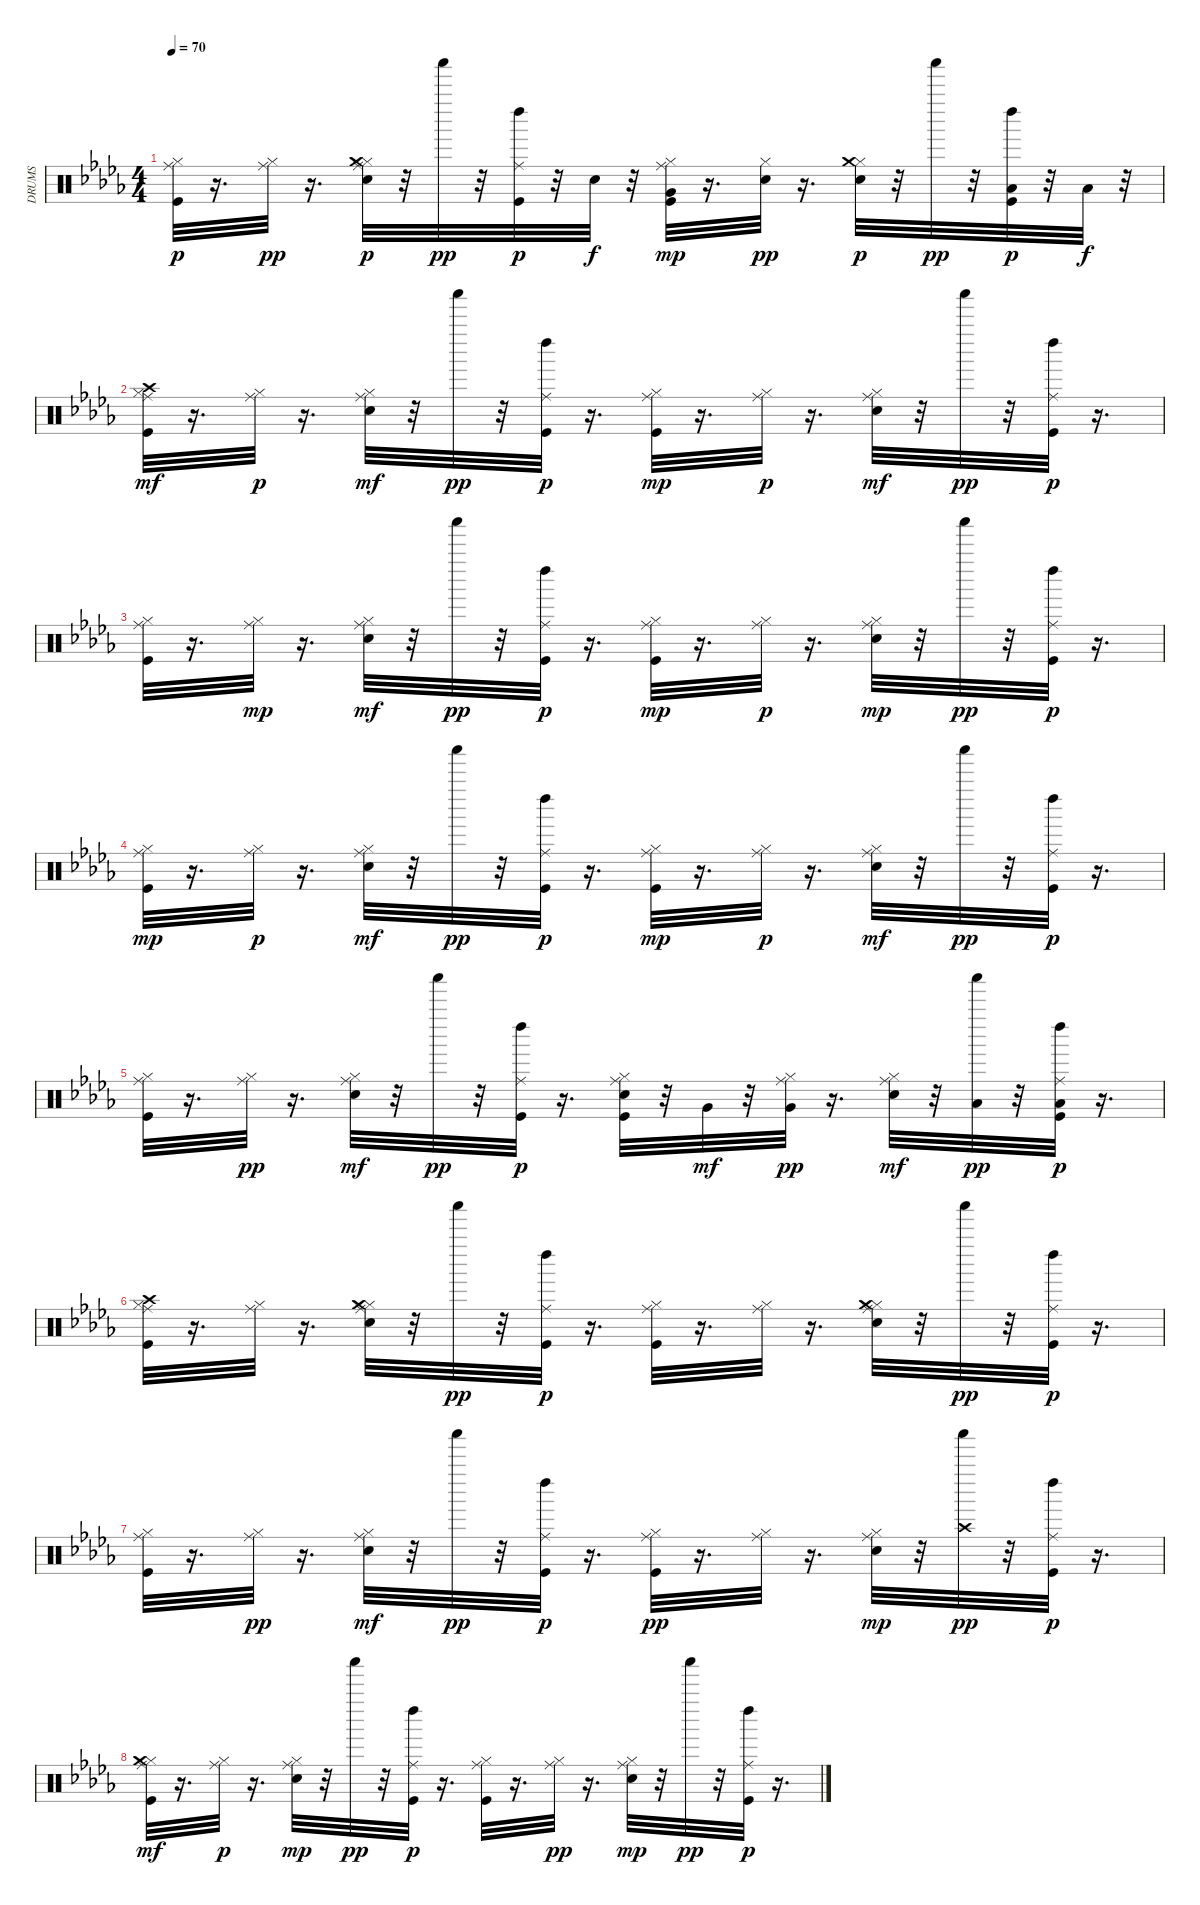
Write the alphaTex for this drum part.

\track ("DRUMS" "DRUMS") {instrument percussion}
\staff {score}
\articulation defaults
\ts (4 4)
\tempo 70
\clef neutral
\ks bbminor
("Kick (hit)" "Hi-Hat (closed)" "Ride (middle)").32{dy p} r.16{d} ("Hi-Hat (closed)" "Ride (middle)").32{dy pp} r.16{d} ("Electric Snare (hit)" "Hi-Hat (closed)" "Ride (middle)" "Crash medium (hit)").32{dy p} r.32 "Shaker (hit)".32{dy pp} r.32 ("Kick (hit)" "Ride (middle)" "Left Maraca (hit)").32{dy p} r.32 "Electric Snare (hit)".32{dy f} r.32 ("Kick (hit)" "Hi-Hat (closed)" "Very Low Tom (hit)" "Ride (middle)").32{dy mp} r.16{d} ("Electric Snare (hit)" "Hi-Hat (closed)").32{dy pp} r.16{d} ("Electric Snare (hit)" "Hi-Hat (closed)" "Crash medium (hit)").32{dy p} r.32 "Shaker (hit)".32{dy pp} r.32 ("Kick (hit)" "Low Tom (hit)" "Left Maraca (hit)").32{dy p} r.32 "Low Tom (hit)".32{dy f} r.32 |
("Kick (hit)" "Hi-Hat (closed)" "Crash high (hit)" "Ride (middle)").32{dy mf} r.16{d} ("Hi-Hat (closed)" "Ride (middle)").32{dy p} r.16{d} ("Electric Snare (hit)" "Hi-Hat (closed)" "Ride (middle)").32{dy mf} r.32 "Shaker (hit)".32{dy pp} r.32 ("Kick (hit)" "Ride (middle)" "Left Maraca (hit)").32{dy p} r.16{d} ("Kick (hit)" "Hi-Hat (closed)" "Ride (middle)").32{dy mp} r.16{d} ("Hi-Hat (closed)" "Ride (middle)").32{dy p} r.16{d} ("Electric Snare (hit)" "Hi-Hat (closed)" "Ride (middle)").32{dy mf} r.32 "Shaker (hit)".32{dy pp} r.32 ("Kick (hit)" "Ride (middle)" "Left Maraca (hit)").32{dy p} r.16{d} |
("Kick (hit)" "Hi-Hat (closed)" "Ride (middle)").32 r.16{d} ("Hi-Hat (closed)" "Ride (middle)").32{dy mp} r.16{d} ("Electric Snare (hit)" "Hi-Hat (closed)" "Ride (middle)").32{dy mf} r.32 "Shaker (hit)".32{dy pp} r.32 ("Kick (hit)" "Ride (middle)" "Left Maraca (hit)").32{dy p} r.16{d} ("Kick (hit)" "Hi-Hat (closed)" "Ride (middle)").32{dy mp} r.16{d} ("Hi-Hat (closed)" "Ride (middle)").32{dy p} r.16{d} ("Electric Snare (hit)" "Hi-Hat (closed)" "Ride (middle)").32{dy mp} r.32 "Shaker (hit)".32{dy pp} r.32 ("Kick (hit)" "Ride (middle)" "Left Maraca (hit)").32{dy p} r.16{d} |
("Kick (hit)" "Hi-Hat (closed)" "Ride (middle)").32{dy mp} r.16{d} ("Hi-Hat (closed)" "Ride (middle)").32{dy p} r.16{d} ("Electric Snare (hit)" "Hi-Hat (closed)" "Ride (middle)").32{dy mf} r.32 "Shaker (hit)".32{dy pp} r.32 ("Kick (hit)" "Ride (middle)" "Left Maraca (hit)").32{dy p} r.16{d} ("Kick (hit)" "Hi-Hat (closed)" "Ride (middle)").32{dy mp} r.16{d} ("Hi-Hat (closed)" "Ride (middle)").32{dy p} r.16{d} ("Electric Snare (hit)" "Hi-Hat (closed)" "Ride (middle)").32{dy mf} r.32 "Shaker (hit)".32{dy pp} r.32 ("Kick (hit)" "Ride (middle)" "Left Maraca (hit)").32{dy p} r.16{d} |
("Kick (hit)" "Hi-Hat (closed)" "Ride (middle)").32 r.16{d} ("Hi-Hat (closed)" "Ride (middle)").32{dy pp} r.16{d} ("Electric Snare (hit)" "Hi-Hat (closed)" "Ride (middle)").32{dy mf} r.32 "Shaker (hit)".32{dy pp} r.32 ("Kick (hit)" "Ride (middle)" "Left Maraca (hit)").32{dy p} r.16{d} ("Kick (hit)" "Electric Snare (hit)" "Hi-Hat (closed)" "Ride (middle)").32 r.32 "Very Low Tom (hit)".32{dy mf} r.32 ("Hi-Hat (closed)" "Very Low Tom (hit)" "Ride (middle)").32{dy pp} r.16{d} ("Electric Snare (hit)" "Hi-Hat (closed)" "Ride (middle)").32{dy mf} r.32 ("Low Tom (hit)" "Shaker (hit)").32{dy pp} r.32 ("Kick (hit)" "Low Tom (hit)" "Ride (middle)" "Left Maraca (hit)").32{dy p} r.16{d} |
("Kick (hit)" "Hi-Hat (closed)" "Crash high (hit)" "Ride (middle)").32 r.16{d} ("Hi-Hat (closed)" "Ride (middle)").32 r.16{d} ("Electric Snare (hit)" "Hi-Hat (closed)" "Ride (middle)" "Crash medium (hit)").32 r.32 "Shaker (hit)".32{dy pp} r.32 ("Kick (hit)" "Ride (middle)" "Left Maraca (hit)").32{dy p} r.16{d} ("Kick (hit)" "Hi-Hat (closed)" "Ride (middle)").32 r.16{d} ("Hi-Hat (closed)" "Ride (middle)").32 r.16{d} ("Electric Snare (hit)" "Hi-Hat (closed)" "Ride (middle)" "Crash medium (hit)").32 r.32 "Shaker (hit)".32{dy pp} r.32 ("Kick (hit)" "Ride (middle)" "Left Maraca (hit)").32{dy p} r.16{d} |
("Kick (hit)" "Hi-Hat (closed)" "Ride (middle)").32 r.16{d} ("Hi-Hat (closed)" "Ride (middle)").32{dy pp} r.16{d} ("Electric Snare (hit)" "Hi-Hat (closed)" "Ride (middle)").32{dy mf} r.32 "Shaker (hit)".32{dy pp} r.32 ("Kick (hit)" "Ride (middle)" "Left Maraca (hit)").32{dy p} r.16{d} ("Kick (hit)" "Hi-Hat (closed)" "Ride (middle)").32{dy pp} r.16{d} ("Hi-Hat (closed)" "Ride (middle)").32 r.16{d} ("Electric Snare (hit)" "Hi-Hat (closed)" "Ride (middle)").32{dy mp} r.32 ("Crash high (hit)" "Shaker (hit)").32{dy pp} r.32 ("Kick (hit)" "Ride (middle)" "Left Maraca (hit)").32{dy p} r.16{d} |
("Kick (hit)" "Hi-Hat (closed)" "Ride (middle)" "Crash medium (hit)").32{dy mf} r.16{d} ("Hi-Hat (closed)" "Ride (middle)").32{dy p} r.16{d} ("Electric Snare (hit)" "Hi-Hat (closed)" "Ride (middle)").32{dy mp} r.32 "Shaker (hit)".32{dy pp} r.32 ("Kick (hit)" "Ride (middle)" "Left Maraca (hit)").32{dy p} r.16{d} ("Kick (hit)" "Hi-Hat (closed)" "Ride (middle)").32 r.16{d} ("Hi-Hat (closed)" "Ride (middle)").32{dy pp} r.16{d} ("Electric Snare (hit)" "Hi-Hat (closed)" "Ride (middle)").32{dy mp} r.32 "Shaker (hit)".32{dy pp} r.32 ("Kick (hit)" "Ride (middle)" "Left Maraca (hit)").32{dy p} r.16{d}
